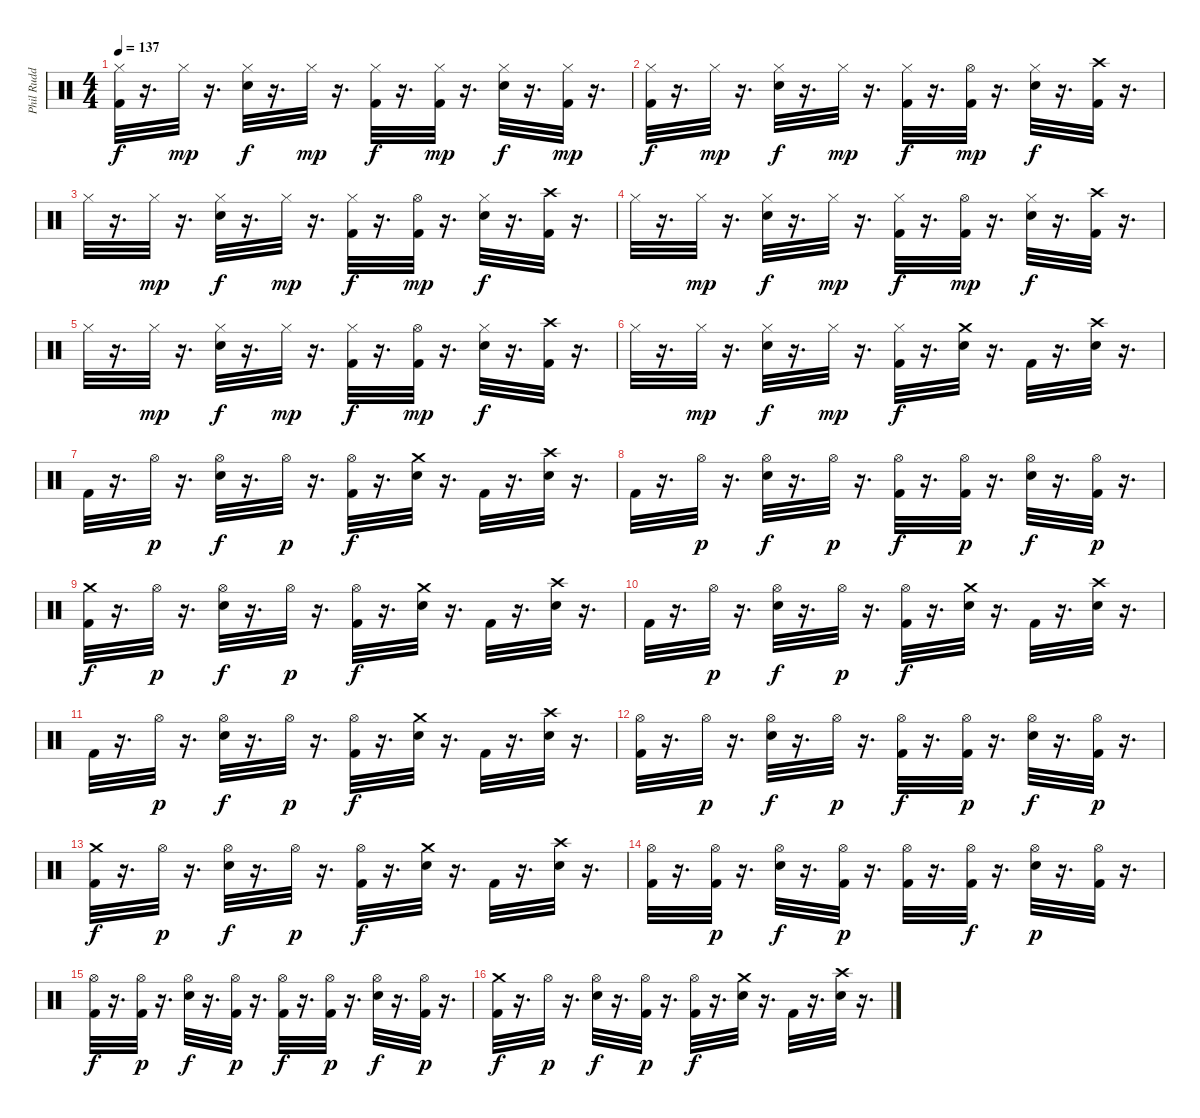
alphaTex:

\track ("Phil Rudd" "Phil Rudd") {instrument percussion}
\staff
\articulation defaults
\ts (4 4)
\tempo 137
\clef neutral
\ks c
("Hi-Hat (closed)" "Kick (hit) 2").32{dy f} r.16{d} "Hi-Hat (closed)".32{dy mp} r.16{d} ("Hi-Hat (closed)" "Electric Snare (hit)").32{dy f} r.16{d} "Hi-Hat (closed)".32{dy mp} r.16{d} ("Hi-Hat (closed)" "Kick (hit) 2").32{dy f} r.16{d} ("Hi-Hat (closed)" "Kick (hit) 2").32{dy mp} r.16{d} ("Hi-Hat (closed)" "Electric Snare (hit)").32{dy f} r.16{d} ("Hi-Hat (closed)" "Kick (hit) 2").32{dy mp} r.16{d} |
("Hi-Hat (closed)" "Kick (hit) 2").32{dy f} r.16{d} "Hi-Hat (closed)".32{dy mp} r.16{d} ("Hi-Hat (closed)" "Electric Snare (hit)").32{dy f} r.16{d} "Hi-Hat (closed)".32{dy mp} r.16{d} ("Hi-Hat (closed)" "Kick (hit) 2").32{dy f} r.16{d} ("Hi-Hat (open)" "Kick (hit) 2").32{dy mp} r.16{d} ("Hi-Hat (closed)" "Electric Snare (hit)").32{dy f} r.16{d} ("Crash high (hit)" "Kick (hit) 2").32 r.16{d} |
"Hi-Hat (closed)".32 r.16{d} "Hi-Hat (closed)".32{dy mp} r.16{d} ("Hi-Hat (closed)" "Electric Snare (hit)").32{dy f} r.16{d} "Hi-Hat (closed)".32{dy mp} r.16{d} ("Hi-Hat (closed)" "Kick (hit) 2").32{dy f} r.16{d} ("Hi-Hat (open)" "Kick (hit) 2").32{dy mp} r.16{d} ("Hi-Hat (closed)" "Electric Snare (hit)").32{dy f} r.16{d} ("Crash high (hit)" "Kick (hit) 2").32 r.16{d} |
"Hi-Hat (closed)".32 r.16{d} "Hi-Hat (closed)".32{dy mp} r.16{d} ("Hi-Hat (closed)" "Electric Snare (hit)").32{dy f} r.16{d} "Hi-Hat (closed)".32{dy mp} r.16{d} ("Hi-Hat (closed)" "Kick (hit) 2").32{dy f} r.16{d} ("Hi-Hat (open)" "Kick (hit) 2").32{dy mp} r.16{d} ("Hi-Hat (closed)" "Electric Snare (hit)").32{dy f} r.16{d} ("Crash high (hit)" "Kick (hit) 2").32 r.16{d} |
"Hi-Hat (closed)".32 r.16{d} "Hi-Hat (closed)".32{dy mp} r.16{d} ("Hi-Hat (closed)" "Electric Snare (hit)").32{dy f} r.16{d} "Hi-Hat (closed)".32{dy mp} r.16{d} ("Hi-Hat (closed)" "Kick (hit) 2").32{dy f} r.16{d} ("Hi-Hat (open)" "Kick (hit) 2").32{dy mp} r.16{d} ("Hi-Hat (closed)" "Electric Snare (hit)").32{dy f} r.16{d} ("Crash high (hit)" "Kick (hit) 2").32 r.16{d} |
"Hi-Hat (closed)".32 r.16{d} "Hi-Hat (closed)".32{dy mp} r.16{d} ("Hi-Hat (closed)" "Electric Snare (hit)").32{dy f} r.16{d} "Hi-Hat (closed)".32{dy mp} r.16{d} ("Hi-Hat (closed)" "Kick (hit) 2").32{dy f} r.16{d} ("Crash medium (hit)" "Electric Snare (hit)").32 r.16{d} "Kick (hit) 2".32 r.16{d} ("Crash high (hit)" "Electric Snare (hit)").32 r.16{d} |
"Kick (hit) 2".32 r.16{d} "Hi-Hat (open)".32{dy p} r.16{d} ("Hi-Hat (open)" "Electric Snare (hit)").32{dy f} r.16{d} "Hi-Hat (open)".32{dy p} r.16{d} ("Hi-Hat (open)" "Kick (hit) 2").32{dy f} r.16{d} ("Crash medium (hit)" "Electric Snare (hit)").32 r.16{d} "Kick (hit) 2".32 r.16{d} ("Crash high (hit)" "Electric Snare (hit)").32 r.16{d} |
"Kick (hit) 2".32 r.16{d} "Hi-Hat (open)".32{dy p} r.16{d} ("Hi-Hat (open)" "Electric Snare (hit)").32{dy f} r.16{d} "Hi-Hat (open)".32{dy p} r.16{d} ("Hi-Hat (open)" "Kick (hit) 2").32{dy f} r.16{d} ("Hi-Hat (open)" "Kick (hit) 2").32{dy p} r.16{d} ("Hi-Hat (open)" "Electric Snare (hit)").32{dy f} r.16{d} ("Hi-Hat (open)" "Kick (hit) 2").32{dy p} r.16{d} |
("Crash medium (hit)" "Kick (hit) 2").32{dy f} r.16{d} "Hi-Hat (open)".32{dy p} r.16{d} ("Hi-Hat (open)" "Electric Snare (hit)").32{dy f} r.16{d} "Hi-Hat (open)".32{dy p} r.16{d} ("Hi-Hat (open)" "Kick (hit) 2").32{dy f} r.16{d} ("Crash medium (hit)" "Electric Snare (hit)").32 r.16{d} "Kick (hit) 2".32 r.16{d} ("Crash high (hit)" "Electric Snare (hit)").32 r.16{d} |
"Kick (hit) 2".32 r.16{d} "Hi-Hat (open)".32{dy p} r.16{d} ("Hi-Hat (open)" "Electric Snare (hit)").32{dy f} r.16{d} "Hi-Hat (open)".32{dy p} r.16{d} ("Kick (hit) 2" "Hi-Hat (open)").32{dy f} r.16{d} ("Electric Snare (hit)" "Crash medium (hit)").32 r.16{d} "Kick (hit) 2".32 r.16{d} ("Electric Snare (hit)" "Crash high (hit)").32 r.16{d} |
"Kick (hit) 2".32 r.16{d} "Hi-Hat (open)".32{dy p} r.16{d} ("Hi-Hat (open)" "Electric Snare (hit)").32{dy f} r.16{d} "Hi-Hat (open)".32{dy p} r.16{d} ("Hi-Hat (open)" "Kick (hit) 2").32{dy f} r.16{d} ("Crash medium (hit)" "Electric Snare (hit)").32 r.16{d} "Kick (hit) 2".32 r.16{d} ("Crash high (hit)" "Electric Snare (hit)").32 r.16{d} |
("Kick (hit) 2" "Hi-Hat (open)").32 r.16{d} "Hi-Hat (open)".32{dy p} r.16{d} ("Hi-Hat (open)" "Electric Snare (hit)").32{dy f} r.16{d} "Hi-Hat (open)".32{dy p} r.16{d} ("Hi-Hat (open)" "Kick (hit) 2").32{dy f} r.16{d} ("Hi-Hat (open)" "Kick (hit) 2").32{dy p} r.16{d} ("Hi-Hat (open)" "Electric Snare (hit)").32{dy f} r.16{d} ("Hi-Hat (open)" "Kick (hit) 2").32{dy p} r.16{d} |
("Crash medium (hit)" "Kick (hit) 2").32{dy f} r.16{d} "Hi-Hat (open)".32{dy p} r.16{d} ("Hi-Hat (open)" "Electric Snare (hit)").32{dy f} r.16{d} "Hi-Hat (open)".32{dy p} r.16{d} ("Hi-Hat (open)" "Kick (hit) 2").32{dy f} r.16{d} ("Crash medium (hit)" "Electric Snare (hit)").32 r.16{d} "Kick (hit) 2".32 r.16{d} ("Crash high (hit)" "Electric Snare (hit)").32 r.16{d} |
("Hi-Hat (open)" "Kick (hit) 2").32 r.16{d} ("Hi-Hat (open)" "Kick (hit) 2").32{dy p} r.16{d} ("Hi-Hat (open)" "Electric Snare (hit)").32{dy f} r.16{d} ("Hi-Hat (open)" "Kick (hit) 2").32{dy p} r.16{d} ("Hi-Hat (open)" "Kick (hit) 2").32 r.16{d} ("Kick (hit) 2" "Hi-Hat (open)").32{dy f} r.16{d} ("Electric Snare (hit)" "Hi-Hat (open)").32{dy p} r.16{d} ("Kick (hit) 2" "Hi-Hat (open)").32 r.16{d} |
("Kick (hit) 2" "Hi-Hat (open)").32{dy f} r.16{d} ("Kick (hit) 2" "Hi-Hat (open)").32{dy p} r.16{d} ("Electric Snare (hit)" "Hi-Hat (open)").32{dy f} r.16{d} ("Kick (hit) 2" "Hi-Hat (open)").32{dy p} r.16{d} ("Kick (hit) 2" "Hi-Hat (open)").32{dy f} r.16{d} ("Kick (hit) 2" "Hi-Hat (open)").32{dy p} r.16{d} ("Electric Snare (hit)" "Hi-Hat (open)").32{dy f} r.16{d} ("Kick (hit) 2" "Hi-Hat (open)").32{dy p} r.16{d} |
("Crash medium (hit)" "Kick (hit) 2").32{dy f} r.16{d} "Hi-Hat (open)".32{dy p} r.16{d} ("Hi-Hat (open)" "Electric Snare (hit)").32{dy f} r.16{d} ("Kick (hit) 2" "Hi-Hat (open)").32{dy p} r.16{d} ("Hi-Hat (open)" "Kick (hit) 2").32{dy f} r.16{d} ("Crash medium (hit)" "Electric Snare (hit)").32 r.16{d} "Kick (hit) 2".32 r.16{d} ("Crash high (hit)" "Electric Snare (hit)").32 r.16{d}
